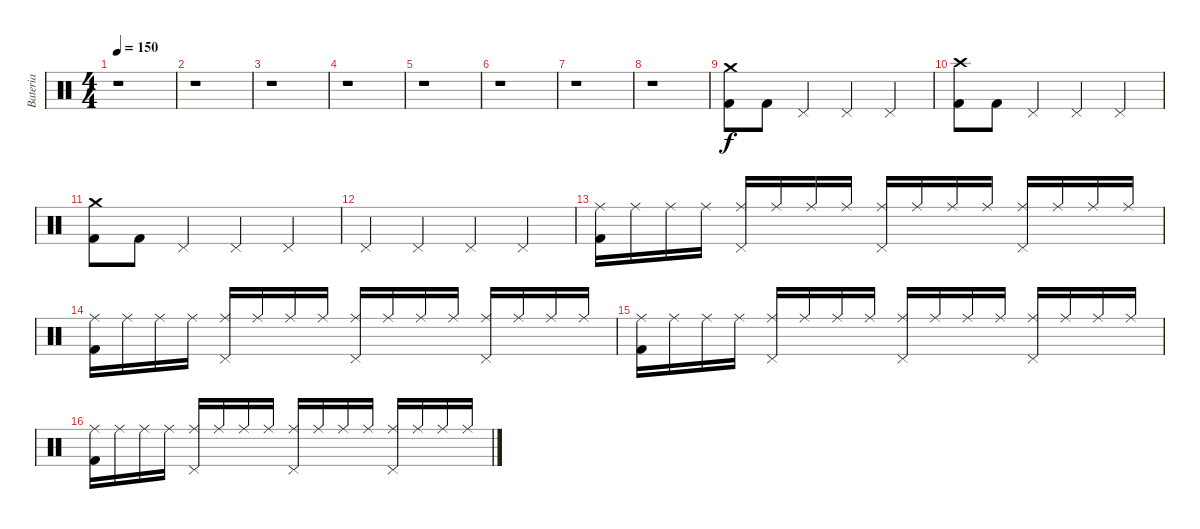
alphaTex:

\track ("Bateria" "Bateria") {instrument percussion}
\staff {score}
\articulation defaults
\ts (4 4)
\tempo 150
\clef neutral
\ks c
r.1{dy f} |
r.1 |
r.1 |
r.1 |
r.1 |
r.1 |
r.1 |
r.1 |
("Crash medium (hit)" "Kick (hit) 2").8 "Kick (hit) 2".8 "Pedal Hi-Hat (hit)".4 "Pedal Hi-Hat (hit)".4 "Pedal Hi-Hat (hit)".4 |
("Crash high (hit)" "Kick (hit) 2").8 "Kick (hit) 2".8 "Pedal Hi-Hat (hit)".4 "Pedal Hi-Hat (hit)".4 "Pedal Hi-Hat (hit)".4 |
("Crash medium (hit)" "Kick (hit) 2").8 "Kick (hit) 2".8 "Pedal Hi-Hat (hit)".4 "Pedal Hi-Hat (hit)".4 "Pedal Hi-Hat (hit)".4 |
"Pedal Hi-Hat (hit)".4 "Pedal Hi-Hat (hit)".4 "Pedal Hi-Hat (hit)".4 "Pedal Hi-Hat (hit)".4 |
("Ride (middle)" "Kick (hit) 2").16 "Ride (middle)".16 "Ride (middle)".16 "Ride (middle)".16 ("Ride (middle)" "Pedal Hi-Hat (hit)").16 "Ride (middle)".16 "Ride (middle)".16 "Ride (middle)".16 ("Ride (middle)" "Pedal Hi-Hat (hit)").16 "Ride (middle)".16 "Ride (middle)".16 "Ride (middle)".16 ("Ride (middle)" "Pedal Hi-Hat (hit)").16 "Ride (middle)".16 "Ride (middle)".16 "Ride (middle)".16 |
("Ride (middle)" "Kick (hit) 2").16 "Ride (middle)".16 "Ride (middle)".16 "Ride (middle)".16 ("Ride (middle)" "Pedal Hi-Hat (hit)").16 "Ride (middle)".16 "Ride (middle)".16 "Ride (middle)".16 ("Ride (middle)" "Pedal Hi-Hat (hit)").16 "Ride (middle)".16 "Ride (middle)".16 "Ride (middle)".16 ("Ride (middle)" "Pedal Hi-Hat (hit)").16 "Ride (middle)".16 "Ride (middle)".16 "Ride (middle)".16 |
("Ride (middle)" "Kick (hit) 2").16 "Ride (middle)".16 "Ride (middle)".16 "Ride (middle)".16 ("Ride (middle)" "Pedal Hi-Hat (hit)").16 "Ride (middle)".16 "Ride (middle)".16 "Ride (middle)".16 ("Ride (middle)" "Pedal Hi-Hat (hit)").16 "Ride (middle)".16 "Ride (middle)".16 "Ride (middle)".16 ("Ride (middle)" "Pedal Hi-Hat (hit)").16 "Ride (middle)".16 "Ride (middle)".16 "Ride (middle)".16 |
("Ride (middle)" "Kick (hit) 2").16 "Ride (middle)".16 "Ride (middle)".16 "Ride (middle)".16 ("Ride (middle)" "Pedal Hi-Hat (hit)").16 "Ride (middle)".16 "Ride (middle)".16 "Ride (middle)".16 ("Ride (middle)" "Pedal Hi-Hat (hit)").16 "Ride (middle)".16 "Ride (middle)".16 "Ride (middle)".16 ("Ride (middle)" "Pedal Hi-Hat (hit)").16 "Ride (middle)".16 "Ride (middle)".16 "Ride (middle)".16
